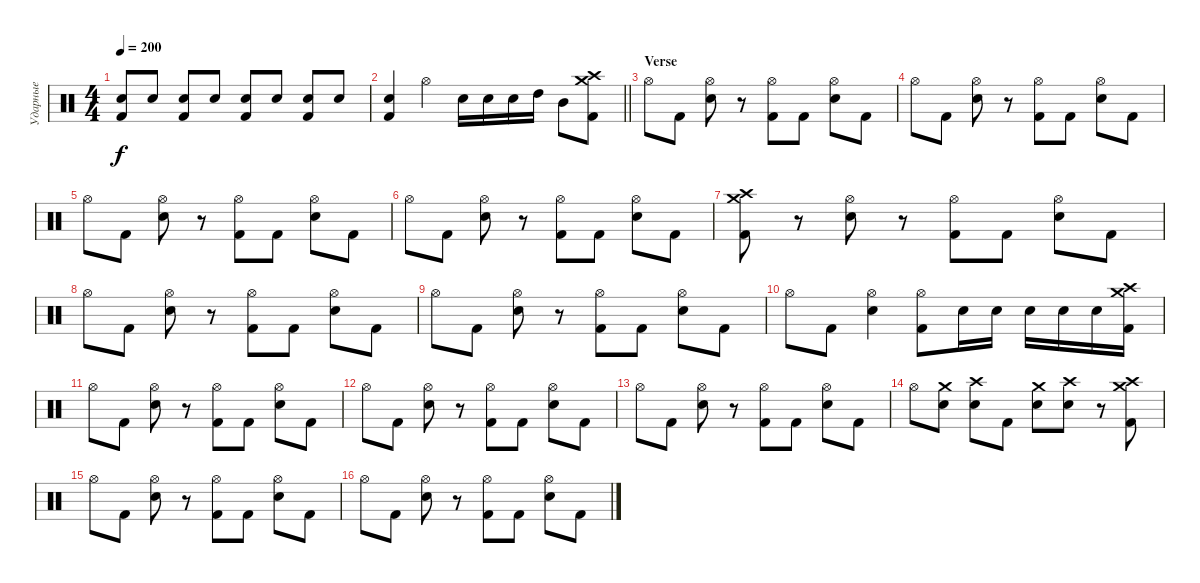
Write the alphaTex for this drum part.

\track ("Ударные" "Ударные") {instrument percussion}
\staff {score}
\articulation defaults
\ts (4 4)
\tempo 200
\clef neutral
\ks c
("Electric Snare (hit)" "Kick (hit) 2").8{dy f} "Electric Snare (hit)".8 ("Electric Snare (hit)" "Kick (hit) 2").8 "Electric Snare (hit)".8 ("Electric Snare (hit)" "Kick (hit) 2").8 "Electric Snare (hit)".8 ("Electric Snare (hit)" "Kick (hit) 2").8 "Electric Snare (hit)".8 |
\barLineRight lightlight
("Electric Snare (hit)" "Kick (hit) 2").4 "Hi-Hat (open)".4 "Electric Snare (hit)".16 "Electric Snare (hit)".16 "Electric Snare (hit)".16 "High Tom (hit)".16 "Mid Tom (hit)".8 ("Crash medium (hit)" "Crash high (hit)" "Kick (hit) 2").8 |
\section ("" "Verse")
"Hi-Hat (open)".8 "Kick (hit) 2".8 ("Hi-Hat (open)" "Electric Snare (hit)").8 r.8 ("Hi-Hat (open)" "Kick (hit) 2").8 "Kick (hit) 2".8 ("Hi-Hat (open)" "Electric Snare (hit)").8 "Kick (hit) 2".8 |
"Hi-Hat (open)".8 "Kick (hit) 2".8 ("Hi-Hat (open)" "Electric Snare (hit)").8 r.8 ("Hi-Hat (open)" "Kick (hit) 2").8 "Kick (hit) 2".8 ("Hi-Hat (open)" "Electric Snare (hit)").8 "Kick (hit) 2".8 |
"Hi-Hat (open)".8 "Kick (hit) 2".8 ("Hi-Hat (open)" "Electric Snare (hit)").8 r.8 ("Hi-Hat (open)" "Kick (hit) 2").8 "Kick (hit) 2".8 ("Hi-Hat (open)" "Electric Snare (hit)").8 "Kick (hit) 2".8 |
"Hi-Hat (open)".8 "Kick (hit) 2".8 ("Hi-Hat (open)" "Electric Snare (hit)").8 r.8 ("Hi-Hat (open)" "Kick (hit) 2").8 "Kick (hit) 2".8 ("Hi-Hat (open)" "Electric Snare (hit)").8 "Kick (hit) 2".8 |
("Crash medium (hit)" "Crash high (hit)" "Kick (hit) 2").8 r.8 ("Hi-Hat (open)" "Electric Snare (hit)").8 r.8 ("Hi-Hat (open)" "Kick (hit) 2").8 "Kick (hit) 2".8 ("Hi-Hat (open)" "Electric Snare (hit)").8 "Kick (hit) 2".8 |
"Hi-Hat (open)".8 "Kick (hit) 2".8 ("Hi-Hat (open)" "Electric Snare (hit)").8 r.8 ("Hi-Hat (open)" "Kick (hit) 2").8 "Kick (hit) 2".8 ("Hi-Hat (open)" "Electric Snare (hit)").8 "Kick (hit) 2".8 |
"Hi-Hat (open)".8 "Kick (hit) 2".8 ("Hi-Hat (open)" "Electric Snare (hit)").8 r.8 ("Hi-Hat (open)" "Kick (hit) 2").8 "Kick (hit) 2".8 ("Hi-Hat (open)" "Electric Snare (hit)").8 "Kick (hit) 2".8 |
"Hi-Hat (open)".8 "Kick (hit) 2".8 ("Hi-Hat (open)" "Electric Snare (hit)").4 ("Hi-Hat (open)" "Kick (hit) 2").8 "Electric Snare (hit)".16 "Electric Snare (hit)".16 "Electric Snare (hit)".16 "Electric Snare (hit)".16 "Electric Snare (hit)".16 ("Crash medium (hit)" "Crash high (hit)" "Kick (hit) 2").16 |
"Hi-Hat (open)".8 "Kick (hit) 2".8 ("Hi-Hat (open)" "Electric Snare (hit)").8 r.8 ("Hi-Hat (open)" "Kick (hit) 2").8 "Kick (hit) 2".8 ("Hi-Hat (open)" "Electric Snare (hit)").8 "Kick (hit) 2".8 |
"Hi-Hat (open)".8 "Kick (hit) 2".8 ("Hi-Hat (open)" "Electric Snare (hit)").8 r.8 ("Hi-Hat (open)" "Kick (hit) 2").8 "Kick (hit) 2".8 ("Hi-Hat (open)" "Electric Snare (hit)").8 "Kick (hit) 2".8 |
"Hi-Hat (open)".8 "Kick (hit) 2".8 ("Hi-Hat (open)" "Electric Snare (hit)").8 r.8 ("Hi-Hat (open)" "Kick (hit) 2").8 "Kick (hit) 2".8 ("Hi-Hat (open)" "Electric Snare (hit)").8 "Kick (hit) 2".8 |
"Hi-Hat (open)".8 ("Crash medium (hit)" "Electric Snare (hit)").8 ("Crash high (hit)" "Electric Snare (hit)").8 "Kick (hit) 2".8 ("Crash medium (hit)" "Electric Snare (hit)").8 ("Crash high (hit)" "Electric Snare (hit)").8 r.8 ("Crash medium (hit)" "Crash high (hit)" "Kick (hit) 2").8 |
"Hi-Hat (open)".8 "Kick (hit) 2".8 ("Hi-Hat (open)" "Electric Snare (hit)").8 r.8 ("Hi-Hat (open)" "Kick (hit) 2").8 "Kick (hit) 2".8 ("Hi-Hat (open)" "Electric Snare (hit)").8 "Kick (hit) 2".8 |
"Hi-Hat (open)".8 "Kick (hit) 2".8 ("Hi-Hat (open)" "Electric Snare (hit)").8 r.8 ("Hi-Hat (open)" "Kick (hit) 2").8 "Kick (hit) 2".8 ("Hi-Hat (open)" "Electric Snare (hit)").8 "Kick (hit) 2".8
